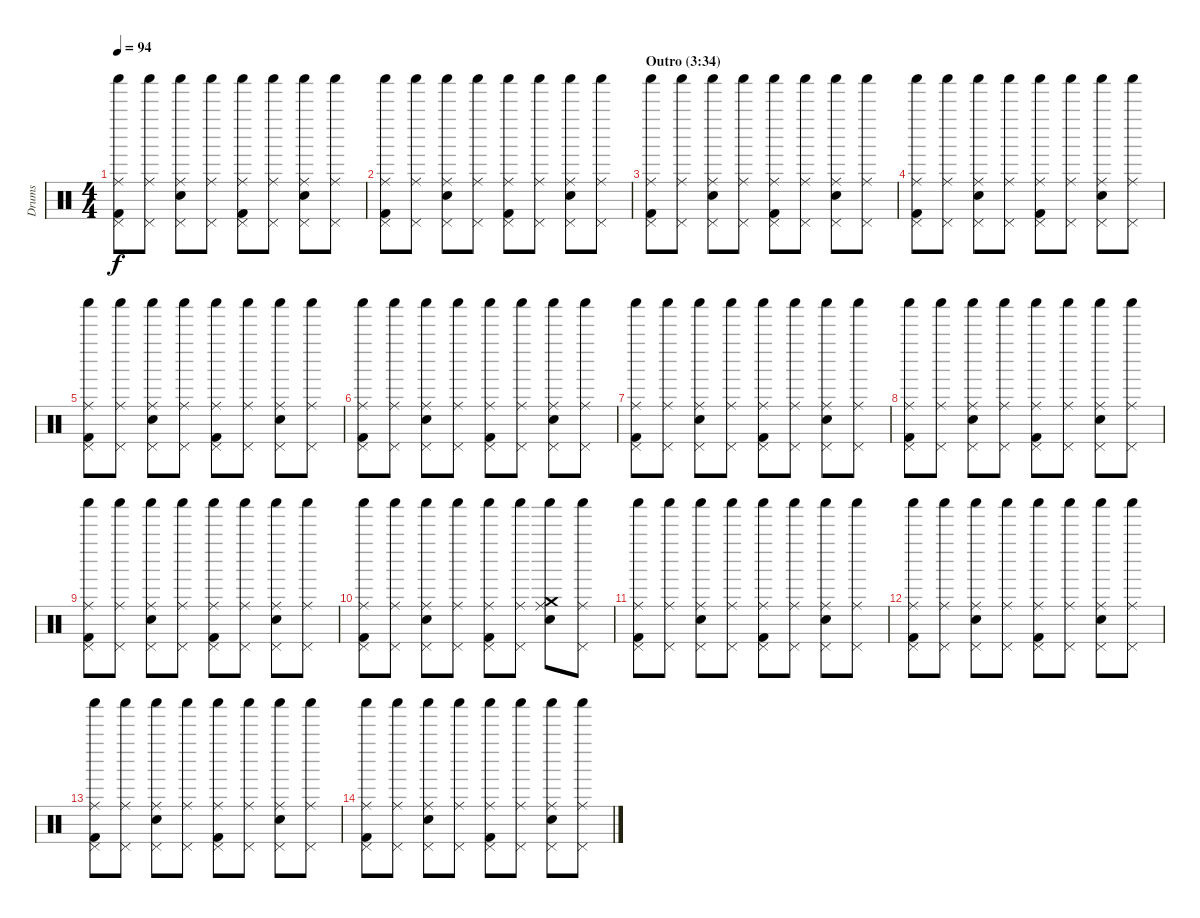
\track ("Drums" "Drums") {instrument percussion}
\staff {score}
\articulation defaults
\ts (4 4)
\tempo 94
\clef neutral
\ks c
("Pedal Hi-Hat (hit)" "Ride (middle)" "Shaker (hit)" "Kick (hit) 2").8{dy f} ("Pedal Hi-Hat (hit)" "Ride (middle)" "Shaker (hit)").8 ("Pedal Hi-Hat (hit)" "Ride (middle)" "Shaker (hit)" "Snare (hit) 2").8 ("Pedal Hi-Hat (hit)" "Ride (middle)" "Shaker (hit)").8 ("Pedal Hi-Hat (hit)" "Ride (middle)" "Shaker (hit)" "Kick (hit) 2").8 ("Pedal Hi-Hat (hit)" "Ride (middle)" "Shaker (hit)").8 ("Pedal Hi-Hat (hit)" "Ride (middle)" "Shaker (hit)" "Snare (hit) 2").8 ("Pedal Hi-Hat (hit)" "Ride (middle)" "Shaker (hit)").8 |
("Pedal Hi-Hat (hit)" "Ride (middle)" "Shaker (hit)" "Kick (hit) 2").8 ("Pedal Hi-Hat (hit)" "Ride (middle)" "Shaker (hit)").8 ("Pedal Hi-Hat (hit)" "Ride (middle)" "Shaker (hit)" "Snare (hit) 2").8 ("Pedal Hi-Hat (hit)" "Ride (middle)" "Shaker (hit)").8 ("Pedal Hi-Hat (hit)" "Ride (middle)" "Shaker (hit)" "Kick (hit) 2").8 ("Pedal Hi-Hat (hit)" "Ride (middle)" "Shaker (hit)").8 ("Pedal Hi-Hat (hit)" "Ride (middle)" "Shaker (hit)" "Snare (hit) 2").8 ("Pedal Hi-Hat (hit)" "Ride (middle)" "Shaker (hit)").8 |
\section ("" "Outro (3:34)")
("Pedal Hi-Hat (hit)" "Ride (middle)" "Shaker (hit)" "Kick (hit) 2").8 ("Pedal Hi-Hat (hit)" "Ride (middle)" "Shaker (hit)").8 ("Pedal Hi-Hat (hit)" "Ride (middle)" "Shaker (hit)" "Snare (hit) 2").8 ("Pedal Hi-Hat (hit)" "Ride (middle)" "Shaker (hit)").8 ("Pedal Hi-Hat (hit)" "Ride (middle)" "Shaker (hit)" "Kick (hit) 2").8 ("Pedal Hi-Hat (hit)" "Ride (middle)" "Shaker (hit)").8 ("Pedal Hi-Hat (hit)" "Ride (middle)" "Shaker (hit)" "Snare (hit) 2").8 ("Pedal Hi-Hat (hit)" "Ride (middle)" "Shaker (hit)").8 |
("Pedal Hi-Hat (hit)" "Ride (middle)" "Shaker (hit)" "Kick (hit) 2").8 ("Pedal Hi-Hat (hit)" "Ride (middle)" "Shaker (hit)").8 ("Pedal Hi-Hat (hit)" "Ride (middle)" "Shaker (hit)" "Snare (hit) 2").8 ("Pedal Hi-Hat (hit)" "Ride (middle)" "Shaker (hit)").8 ("Pedal Hi-Hat (hit)" "Ride (middle)" "Shaker (hit)" "Kick (hit) 2").8 ("Pedal Hi-Hat (hit)" "Ride (middle)" "Shaker (hit)").8 ("Pedal Hi-Hat (hit)" "Ride (middle)" "Shaker (hit)" "Snare (hit) 2").8 ("Pedal Hi-Hat (hit)" "Ride (middle)" "Shaker (hit)").8 |
("Pedal Hi-Hat (hit)" "Ride (middle)" "Shaker (hit)" "Kick (hit) 2").8 ("Pedal Hi-Hat (hit)" "Ride (middle)" "Shaker (hit)").8 ("Pedal Hi-Hat (hit)" "Ride (middle)" "Shaker (hit)" "Snare (hit) 2").8 ("Pedal Hi-Hat (hit)" "Ride (middle)" "Shaker (hit)").8 ("Pedal Hi-Hat (hit)" "Ride (middle)" "Shaker (hit)" "Kick (hit) 2").8 ("Pedal Hi-Hat (hit)" "Ride (middle)" "Shaker (hit)").8 ("Pedal Hi-Hat (hit)" "Ride (middle)" "Shaker (hit)" "Snare (hit) 2").8 ("Pedal Hi-Hat (hit)" "Ride (middle)" "Shaker (hit)").8 |
("Pedal Hi-Hat (hit)" "Ride (middle)" "Shaker (hit)" "Kick (hit) 2").8 ("Pedal Hi-Hat (hit)" "Ride (middle)" "Shaker (hit)").8 ("Pedal Hi-Hat (hit)" "Ride (middle)" "Shaker (hit)" "Snare (hit) 2").8 ("Pedal Hi-Hat (hit)" "Ride (middle)" "Shaker (hit)").8 ("Pedal Hi-Hat (hit)" "Ride (middle)" "Shaker (hit)" "Kick (hit) 2").8 ("Pedal Hi-Hat (hit)" "Ride (middle)" "Shaker (hit)").8 ("Pedal Hi-Hat (hit)" "Ride (middle)" "Shaker (hit)" "Snare (hit) 2").8 ("Pedal Hi-Hat (hit)" "Ride (middle)" "Shaker (hit)").8 |
("Pedal Hi-Hat (hit)" "Ride (middle)" "Shaker (hit)" "Kick (hit) 2").8 ("Pedal Hi-Hat (hit)" "Ride (middle)" "Shaker (hit)").8 ("Pedal Hi-Hat (hit)" "Ride (middle)" "Shaker (hit)" "Snare (hit) 2").8 ("Pedal Hi-Hat (hit)" "Ride (middle)" "Shaker (hit)").8 ("Pedal Hi-Hat (hit)" "Ride (middle)" "Shaker (hit)" "Kick (hit) 2").8 ("Pedal Hi-Hat (hit)" "Ride (middle)" "Shaker (hit)").8 ("Pedal Hi-Hat (hit)" "Ride (middle)" "Shaker (hit)" "Snare (hit) 2").8 ("Pedal Hi-Hat (hit)" "Ride (middle)" "Shaker (hit)").8 |
("Pedal Hi-Hat (hit)" "Ride (middle)" "Shaker (hit)" "Kick (hit) 2").8 ("Pedal Hi-Hat (hit)" "Ride (middle)" "Shaker (hit)").8 ("Pedal Hi-Hat (hit)" "Ride (middle)" "Shaker (hit)" "Snare (hit) 2").8 ("Pedal Hi-Hat (hit)" "Ride (middle)" "Shaker (hit)").8 ("Pedal Hi-Hat (hit)" "Ride (middle)" "Shaker (hit)" "Kick (hit) 2").8 ("Pedal Hi-Hat (hit)" "Ride (middle)" "Shaker (hit)").8 ("Pedal Hi-Hat (hit)" "Ride (middle)" "Shaker (hit)" "Snare (hit) 2").8 ("Pedal Hi-Hat (hit)" "Ride (middle)" "Shaker (hit)").8 |
("Pedal Hi-Hat (hit)" "Ride (middle)" "Shaker (hit)" "Kick (hit) 2").8 ("Pedal Hi-Hat (hit)" "Ride (middle)" "Shaker (hit)").8 ("Pedal Hi-Hat (hit)" "Ride (middle)" "Shaker (hit)" "Snare (hit) 2").8 ("Pedal Hi-Hat (hit)" "Ride (middle)" "Shaker (hit)").8 ("Pedal Hi-Hat (hit)" "Ride (middle)" "Shaker (hit)" "Kick (hit) 2").8 ("Pedal Hi-Hat (hit)" "Ride (middle)" "Shaker (hit)").8 ("Pedal Hi-Hat (hit)" "Ride (middle)" "Shaker (hit)" "Snare (hit) 2").8 ("Pedal Hi-Hat (hit)" "Ride (middle)" "Shaker (hit)").8 |
("Pedal Hi-Hat (hit)" "Ride (middle)" "Shaker (hit)" "Kick (hit) 2").8 ("Pedal Hi-Hat (hit)" "Ride (middle)" "Shaker (hit)").8 ("Pedal Hi-Hat (hit)" "Ride (middle)" "Shaker (hit)" "Snare (hit) 2").8 ("Pedal Hi-Hat (hit)" "Ride (middle)" "Shaker (hit)").8 ("Pedal Hi-Hat (hit)" "Ride (middle)" "Shaker (hit)" "Kick (hit) 2").8 ("Pedal Hi-Hat (hit)" "Ride (middle)" "Shaker (hit)").8 ("Crash medium (hit)" "Ride (middle)" "Shaker (hit)" "Snare (hit) 2").8 ("Pedal Hi-Hat (hit)" "Ride (middle)" "Shaker (hit)").8 |
("Pedal Hi-Hat (hit)" "Ride (middle)" "Shaker (hit)" "Kick (hit) 2").8 ("Pedal Hi-Hat (hit)" "Ride (middle)" "Shaker (hit)").8 ("Pedal Hi-Hat (hit)" "Ride (middle)" "Shaker (hit)" "Snare (hit) 2").8 ("Pedal Hi-Hat (hit)" "Ride (middle)" "Shaker (hit)").8 ("Pedal Hi-Hat (hit)" "Ride (middle)" "Shaker (hit)" "Kick (hit) 2").8 ("Pedal Hi-Hat (hit)" "Ride (middle)" "Shaker (hit)").8 ("Pedal Hi-Hat (hit)" "Ride (middle)" "Shaker (hit)" "Snare (hit) 2").8 ("Pedal Hi-Hat (hit)" "Ride (middle)" "Shaker (hit)").8 |
("Pedal Hi-Hat (hit)" "Ride (middle)" "Shaker (hit)" "Kick (hit) 2").8 ("Pedal Hi-Hat (hit)" "Ride (middle)" "Shaker (hit)").8 ("Pedal Hi-Hat (hit)" "Ride (middle)" "Shaker (hit)" "Snare (hit) 2").8 ("Pedal Hi-Hat (hit)" "Ride (middle)" "Shaker (hit)").8 ("Pedal Hi-Hat (hit)" "Ride (middle)" "Shaker (hit)" "Kick (hit) 2").8 ("Pedal Hi-Hat (hit)" "Ride (middle)" "Shaker (hit)").8 ("Pedal Hi-Hat (hit)" "Ride (middle)" "Shaker (hit)" "Snare (hit) 2").8 ("Pedal Hi-Hat (hit)" "Ride (middle)" "Shaker (hit)").8 |
("Pedal Hi-Hat (hit)" "Ride (middle)" "Shaker (hit)" "Kick (hit) 2").8 ("Pedal Hi-Hat (hit)" "Ride (middle)" "Shaker (hit)").8 ("Pedal Hi-Hat (hit)" "Ride (middle)" "Shaker (hit)" "Snare (hit) 2").8 ("Pedal Hi-Hat (hit)" "Ride (middle)" "Shaker (hit)").8 ("Pedal Hi-Hat (hit)" "Ride (middle)" "Shaker (hit)" "Kick (hit) 2").8 ("Pedal Hi-Hat (hit)" "Ride (middle)" "Shaker (hit)").8 ("Pedal Hi-Hat (hit)" "Ride (middle)" "Shaker (hit)" "Snare (hit) 2").8 ("Pedal Hi-Hat (hit)" "Ride (middle)" "Shaker (hit)").8 |
("Pedal Hi-Hat (hit)" "Ride (middle)" "Shaker (hit)" "Kick (hit) 2").8 ("Pedal Hi-Hat (hit)" "Ride (middle)" "Shaker (hit)").8 ("Pedal Hi-Hat (hit)" "Ride (middle)" "Shaker (hit)" "Snare (hit) 2").8 ("Pedal Hi-Hat (hit)" "Ride (middle)" "Shaker (hit)").8 ("Pedal Hi-Hat (hit)" "Ride (middle)" "Shaker (hit)" "Kick (hit) 2").8 ("Pedal Hi-Hat (hit)" "Ride (middle)" "Shaker (hit)").8 ("Pedal Hi-Hat (hit)" "Ride (middle)" "Shaker (hit)" "Snare (hit) 2").8 ("Pedal Hi-Hat (hit)" "Ride (middle)" "Shaker (hit)").8
